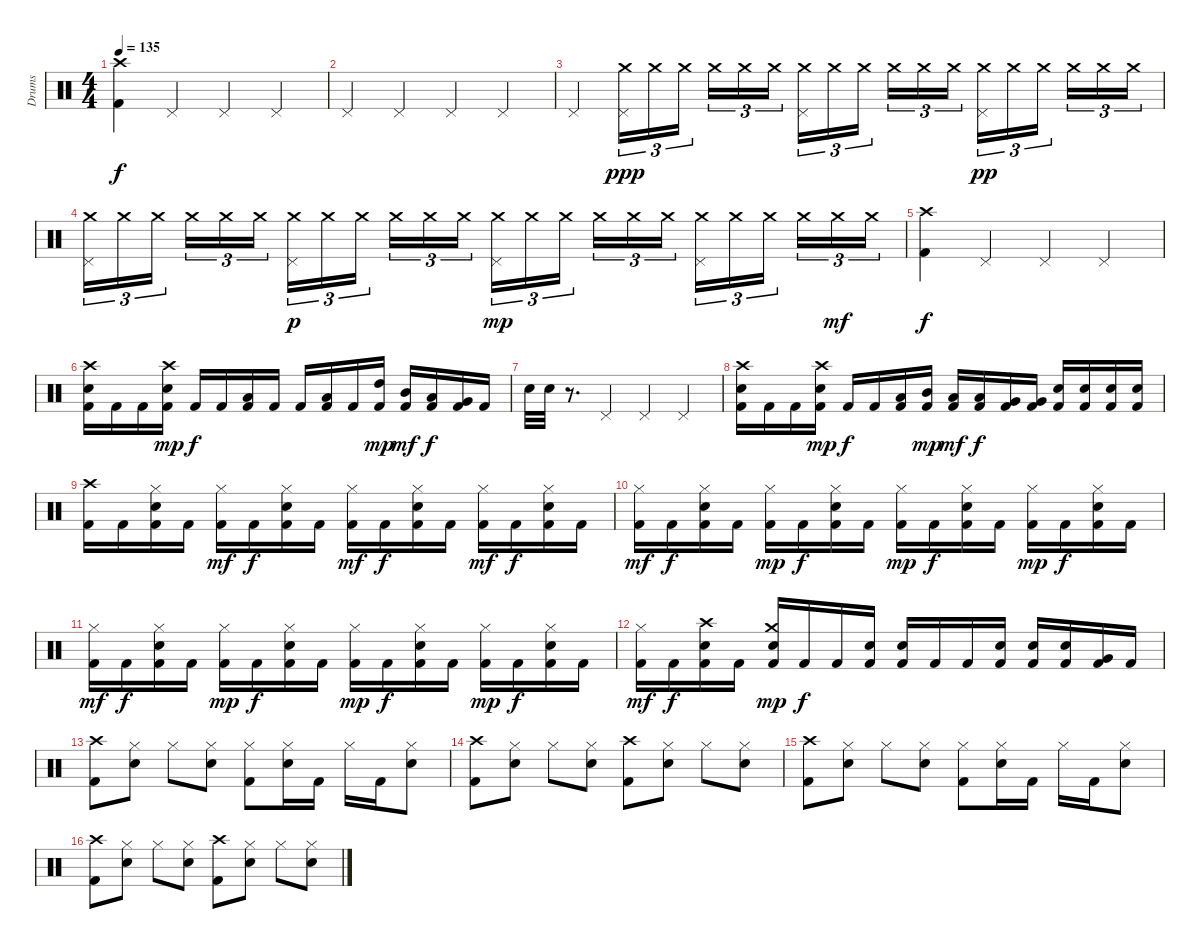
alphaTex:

\track ("Drums" "Drums") {instrument percussion}
\staff {score}
\articulation defaults
\ts (4 4)
\tempo 135
\clef neutral
\ks c
("Crash high (hit)" "Kick (hit) 2").4{dy f} "Pedal Hi-Hat (hit)".4 "Pedal Hi-Hat (hit)".4 "Pedal Hi-Hat (hit)".4 |
"Pedal Hi-Hat (hit)".4 "Pedal Hi-Hat (hit)".4 "Pedal Hi-Hat (hit)".4 "Pedal Hi-Hat (hit)".4 |
"Pedal Hi-Hat (hit)".4 ("Pedal Hi-Hat (hit)" "Crash medium (hit)").16{tu (3 2) dy ppp} "Crash medium (hit)".16{tu (3 2)} "Crash medium (hit)".16{tu (3 2)} "Crash medium (hit)".16{tu (3 2)} "Crash medium (hit)".16{tu (3 2)} "Crash medium (hit)".16{tu (3 2)} ("Pedal Hi-Hat (hit)" "Crash medium (hit)").16{tu (3 2)} "Crash medium (hit)".16{tu (3 2)} "Crash medium (hit)".16{tu (3 2)} "Crash medium (hit)".16{tu (3 2)} "Crash medium (hit)".16{tu (3 2)} "Crash medium (hit)".16{tu (3 2)} ("Pedal Hi-Hat (hit)" "Crash medium (hit)").16{tu (3 2) dy pp} "Crash medium (hit)".16{tu (3 2)} "Crash medium (hit)".16{tu (3 2)} "Crash medium (hit)".16{tu (3 2)} "Crash medium (hit)".16{tu (3 2)} "Crash medium (hit)".16{tu (3 2)} |
("Pedal Hi-Hat (hit)" "Crash medium (hit)").16{tu (3 2)} "Crash medium (hit)".16{tu (3 2)} "Crash medium (hit)".16{tu (3 2)} "Crash medium (hit)".16{tu (3 2)} "Crash medium (hit)".16{tu (3 2)} "Crash medium (hit)".16{tu (3 2)} ("Pedal Hi-Hat (hit)" "Crash medium (hit)").16{tu (3 2) dy p} "Crash medium (hit)".16{tu (3 2)} "Crash medium (hit)".16{tu (3 2)} "Crash medium (hit)".16{tu (3 2)} "Crash medium (hit)".16{tu (3 2)} "Crash medium (hit)".16{tu (3 2)} ("Pedal Hi-Hat (hit)" "Crash medium (hit)").16{tu (3 2) dy mp} "Crash medium (hit)".16{tu (3 2)} "Crash medium (hit)".16{tu (3 2)} "Crash medium (hit)".16{tu (3 2)} "Crash medium (hit)".16{tu (3 2)} "Crash medium (hit)".16{tu (3 2)} ("Pedal Hi-Hat (hit)" "Crash medium (hit)").16{tu (3 2)} "Crash medium (hit)".16{tu (3 2)} "Crash medium (hit)".16{tu (3 2)} "Crash medium (hit)".16{tu (3 2)} "Crash medium (hit)".16{tu (3 2) dy mf} "Crash medium (hit)".16{tu (3 2)} |
("Crash high (hit)" "Kick (hit) 2").4{dy f} "Pedal Hi-Hat (hit)".4 "Pedal Hi-Hat (hit)".4 "Pedal Hi-Hat (hit)".4 |
("Crash high (hit)" "Snare (hit) 2" "Kick (hit) 2").16 "Kick (hit) 2".16 "Kick (hit) 2".16 ("Crash high (hit)" "Snare (hit) 2" "Kick (hit) 2").16{dy mp} "Kick (hit) 2".16{dy f} "Kick (hit) 2".16 ("Low Tom (hit)" "Kick (hit) 2").16 "Kick (hit) 2".16 "Kick (hit) 2".16 ("Low Tom (hit)" "Kick (hit) 2").16 "Kick (hit) 2".16 ("High Tom (hit)" "Kick (hit) 2").16{dy mp} ("Mid Tom (hit)" "Kick (hit) 2").16{dy mf} ("Low Tom (hit)" "Kick (hit) 2").16{dy f} ("Very Low Tom (hit)" "Kick (hit) 2").16 "Kick (hit) 2".16 |
"Snare (hit) 2".32 "Snare (hit) 2".32 r.8{d} "Pedal Hi-Hat (hit)".4 "Pedal Hi-Hat (hit)".4 "Pedal Hi-Hat (hit)".4 |
("Crash high (hit)" "Snare (hit) 2" "Kick (hit) 2").16 "Kick (hit) 2".16 "Kick (hit) 2".16 ("Crash high (hit)" "Snare (hit) 2" "Kick (hit) 2").16{dy mp} "Kick (hit) 2".16{dy f} "Kick (hit) 2".16 ("Low Tom (hit)" "Kick (hit) 2").16 ("Mid Tom (hit)" "Kick (hit) 2").16{dy mp} ("Low Tom (hit)" "Kick (hit) 2").16{dy mf} ("Low Tom (hit)" "Kick (hit) 2").16{dy f} ("Very Low Tom (hit)" "Kick (hit) 2").16 ("Very Low Tom (hit)" "Kick (hit) 2").16 ("Snare (hit) 2" "Kick (hit) 2").16 ("Snare (hit) 2" "Kick (hit) 2").16 ("Snare (hit) 2" "Kick (hit) 2").16 ("Snare (hit) 2" "Kick (hit) 2").16 |
("Crash high (hit)" "Kick (hit) 2").16 "Kick (hit) 2".16 ("Hi-Hat (closed)" "Snare (hit) 2" "Kick (hit) 2").16 "Kick (hit) 2".16 ("Hi-Hat (closed)" "Kick (hit) 2").16{dy mf} "Kick (hit) 2".16{dy f} ("Hi-Hat (closed)" "Snare (hit) 2" "Kick (hit) 2").16 "Kick (hit) 2".16 ("Hi-Hat (closed)" "Kick (hit) 2").16{dy mf} "Kick (hit) 2".16{dy f} ("Hi-Hat (closed)" "Snare (hit) 2" "Kick (hit) 2").16 "Kick (hit) 2".16 ("Hi-Hat (closed)" "Kick (hit) 2").16{dy mf} "Kick (hit) 2".16{dy f} ("Hi-Hat (closed)" "Snare (hit) 2" "Kick (hit) 2").16 "Kick (hit) 2".16 |
("Hi-Hat (closed)" "Kick (hit) 2").16{dy mf} "Kick (hit) 2".16{dy f} ("Hi-Hat (closed)" "Snare (hit) 2" "Kick (hit) 2").16 "Kick (hit) 2".16 ("Hi-Hat (closed)" "Kick (hit) 2").16{dy mp} "Kick (hit) 2".16{dy f} ("Hi-Hat (closed)" "Snare (hit) 2" "Kick (hit) 2").16 "Kick (hit) 2".16 ("Hi-Hat (closed)" "Kick (hit) 2").16{dy mp} "Kick (hit) 2".16{dy f} ("Hi-Hat (closed)" "Snare (hit) 2" "Kick (hit) 2").16 "Kick (hit) 2".16 ("Hi-Hat (closed)" "Kick (hit) 2").16{dy mp} "Kick (hit) 2".16{dy f} ("Hi-Hat (closed)" "Snare (hit) 2" "Kick (hit) 2").16 "Kick (hit) 2".16 |
("Hi-Hat (closed)" "Kick (hit) 2").16{dy mf} "Kick (hit) 2".16{dy f} ("Hi-Hat (closed)" "Snare (hit) 2" "Kick (hit) 2").16 "Kick (hit) 2".16 ("Hi-Hat (closed)" "Kick (hit) 2").16{dy mp} "Kick (hit) 2".16{dy f} ("Hi-Hat (closed)" "Snare (hit) 2" "Kick (hit) 2").16 "Kick (hit) 2".16 ("Hi-Hat (closed)" "Kick (hit) 2").16{dy mp} "Kick (hit) 2".16{dy f} ("Hi-Hat (closed)" "Snare (hit) 2" "Kick (hit) 2").16 "Kick (hit) 2".16 ("Hi-Hat (closed)" "Kick (hit) 2").16{dy mp} "Kick (hit) 2".16{dy f} ("Hi-Hat (closed)" "Snare (hit) 2" "Kick (hit) 2").16 "Kick (hit) 2".16 |
("Hi-Hat (closed)" "Kick (hit) 2").16{dy mf} "Kick (hit) 2".16{dy f} ("Crash high (hit)" "Snare (hit) 2" "Kick (hit) 2").16 "Kick (hit) 2".16 ("Crash medium (hit)" "Snare (hit) 2" "Kick (hit) 2").16{dy mp} "Kick (hit) 2".16{dy f} "Kick (hit) 2".16 ("Snare (hit) 2" "Kick (hit) 2").16 ("Snare (hit) 2" "Kick (hit) 2").16 "Kick (hit) 2".16 "Kick (hit) 2".16 ("Snare (hit) 2" "Kick (hit) 2").16 ("Snare (hit) 2" "Kick (hit) 2").16 ("Snare (hit) 2" "Kick (hit) 2").16 ("Very Low Tom (hit)" "Kick (hit) 2").16 "Kick (hit) 2".16 |
("Crash high (hit)" "Kick (hit) 2").8 ("Hi-Hat (closed)" "Snare (hit) 2").8 "Hi-Hat (closed)".8 ("Hi-Hat (closed)" "Snare (hit) 2").8 ("Hi-Hat (closed)" "Kick (hit) 2").8 ("Hi-Hat (closed)" "Snare (hit) 2").16 "Kick (hit) 2".16 "Hi-Hat (closed)".16 "Kick (hit) 2".16 ("Hi-Hat (closed)" "Snare (hit) 2").8 |
("Crash high (hit)" "Kick (hit) 2").8 ("Hi-Hat (closed)" "Snare (hit) 2").8 "Hi-Hat (closed)".8 ("Hi-Hat (closed)" "Snare (hit) 2").8 ("Crash high (hit)" "Kick (hit) 2").8 ("Hi-Hat (closed)" "Snare (hit) 2").8 "Hi-Hat (closed)".8 ("Hi-Hat (closed)" "Snare (hit) 2").8 |
("Crash high (hit)" "Kick (hit) 2").8 ("Hi-Hat (closed)" "Snare (hit) 2").8 "Hi-Hat (closed)".8 ("Hi-Hat (closed)" "Snare (hit) 2").8 ("Hi-Hat (closed)" "Kick (hit) 2").8 ("Hi-Hat (closed)" "Snare (hit) 2").16 "Kick (hit) 2".16 "Hi-Hat (closed)".16 "Kick (hit) 2".16 ("Hi-Hat (closed)" "Snare (hit) 2").8 |
("Crash high (hit)" "Kick (hit) 2").8 ("Hi-Hat (closed)" "Snare (hit) 2").8 "Hi-Hat (closed)".8 ("Hi-Hat (closed)" "Snare (hit) 2").8 ("Crash high (hit)" "Kick (hit) 2").8 ("Hi-Hat (closed)" "Snare (hit) 2").8 "Hi-Hat (closed)".8 ("Hi-Hat (closed)" "Snare (hit) 2").8
